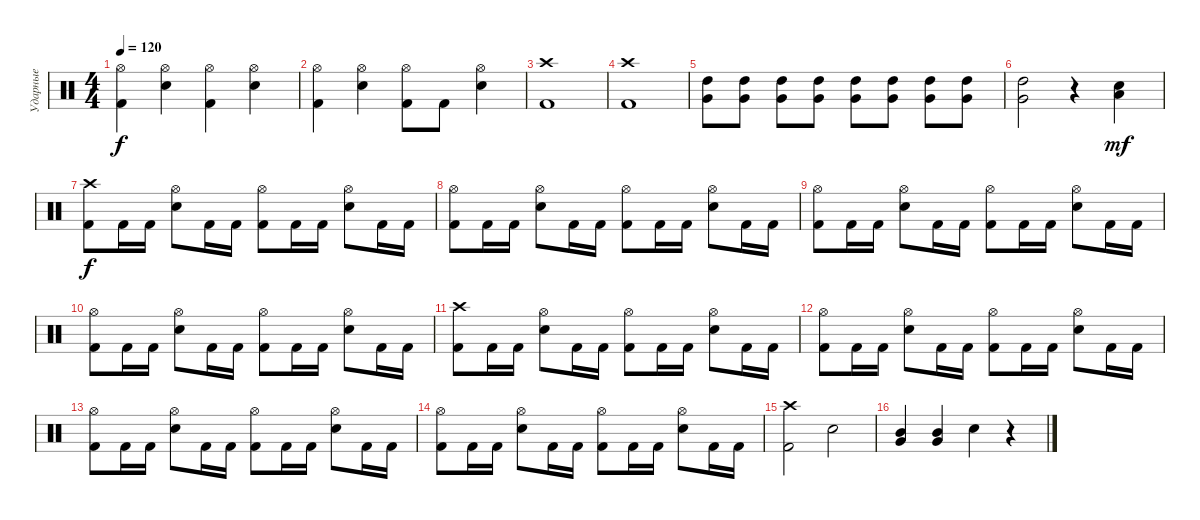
\track ("Ударные" "Ударные") {instrument percussion}
\staff {score}
\articulation defaults
\ts (4 4)
\tempo 120
\clef neutral
\ks c
("Hi-Hat (open)" "Kick (hit) 2").4{dy f} ("Hi-Hat (open)" "Snare (hit) 2").4 ("Hi-Hat (open)" "Kick (hit) 2").4 ("Hi-Hat (open)" "Snare (hit) 2").4 |
("Hi-Hat (open)" "Kick (hit) 2").4 ("Hi-Hat (open)" "Snare (hit) 2").4 ("Hi-Hat (open)" "Kick (hit) 2").8 "Kick (hit) 2".8 ("Hi-Hat (open)" "Snare (hit) 2").4 |
("Crash high (hit)" "Kick (hit) 2").1 |
("Crash high (hit)" "Kick (hit) 2").1 |
("High Tom (hit)" "Very Low Tom (hit)").8 ("High Tom (hit)" "Very Low Tom (hit)").8 ("High Tom (hit)" "Very Low Tom (hit)").8 ("High Tom (hit)" "Very Low Tom (hit)").8 ("High Tom (hit)" "Very Low Tom (hit)").8 ("High Tom (hit)" "Very Low Tom (hit)").8 ("High Tom (hit)" "Very Low Tom (hit)").8 ("High Tom (hit)" "Very Low Tom (hit)").8 |
("High Tom (hit)" "Very Low Tom (hit)").2 r.4 ("Electric Snare (hit)" "Low Tom (hit)").4{dy mf} |
("Kick (hit) 2" "Crash high (hit)").8{dy f} "Kick (hit) 2".16 "Kick (hit) 2".16 ("Snare (hit) 2" "Hi-Hat (open)").8 "Kick (hit) 2".16 "Kick (hit) 2".16 ("Kick (hit) 2" "Hi-Hat (open)").8 "Kick (hit) 2".16 "Kick (hit) 2".16 ("Snare (hit) 2" "Hi-Hat (open)").8 "Kick (hit) 2".16 "Kick (hit) 2".16 |
("Kick (hit) 2" "Hi-Hat (open)").8 "Kick (hit) 2".16 "Kick (hit) 2".16 ("Snare (hit) 2" "Hi-Hat (open)").8 "Kick (hit) 2".16 "Kick (hit) 2".16 ("Kick (hit) 2" "Hi-Hat (open)").8 "Kick (hit) 2".16 "Kick (hit) 2".16 ("Snare (hit) 2" "Hi-Hat (open)").8 "Kick (hit) 2".16 "Kick (hit) 2".16 |
("Kick (hit) 2" "Hi-Hat (open)").8 "Kick (hit) 2".16 "Kick (hit) 2".16 ("Snare (hit) 2" "Hi-Hat (open)").8 "Kick (hit) 2".16 "Kick (hit) 2".16 ("Kick (hit) 2" "Hi-Hat (open)").8 "Kick (hit) 2".16 "Kick (hit) 2".16 ("Snare (hit) 2" "Hi-Hat (open)").8 "Kick (hit) 2".16 "Kick (hit) 2".16 |
("Kick (hit) 2" "Hi-Hat (open)").8 "Kick (hit) 2".16 "Kick (hit) 2".16 ("Snare (hit) 2" "Hi-Hat (open)").8 "Kick (hit) 2".16 "Kick (hit) 2".16 ("Kick (hit) 2" "Hi-Hat (open)").8 "Kick (hit) 2".16 "Kick (hit) 2".16 ("Snare (hit) 2" "Hi-Hat (open)").8 "Kick (hit) 2".16 "Kick (hit) 2".16 |
("Kick (hit) 2" "Crash high (hit)").8 "Kick (hit) 2".16 "Kick (hit) 2".16 ("Snare (hit) 2" "Hi-Hat (open)").8 "Kick (hit) 2".16 "Kick (hit) 2".16 ("Kick (hit) 2" "Hi-Hat (open)").8 "Kick (hit) 2".16 "Kick (hit) 2".16 ("Snare (hit) 2" "Hi-Hat (open)").8 "Kick (hit) 2".16 "Kick (hit) 2".16 |
("Kick (hit) 2" "Hi-Hat (open)").8 "Kick (hit) 2".16 "Kick (hit) 2".16 ("Snare (hit) 2" "Hi-Hat (open)").8 "Kick (hit) 2".16 "Kick (hit) 2".16 ("Kick (hit) 2" "Hi-Hat (open)").8 "Kick (hit) 2".16 "Kick (hit) 2".16 ("Snare (hit) 2" "Hi-Hat (open)").8 "Kick (hit) 2".16 "Kick (hit) 2".16 |
("Kick (hit) 2" "Hi-Hat (open)").8 "Kick (hit) 2".16 "Kick (hit) 2".16 ("Snare (hit) 2" "Hi-Hat (open)").8 "Kick (hit) 2".16 "Kick (hit) 2".16 ("Kick (hit) 2" "Hi-Hat (open)").8 "Kick (hit) 2".16 "Kick (hit) 2".16 ("Snare (hit) 2" "Hi-Hat (open)").8 "Kick (hit) 2".16 "Kick (hit) 2".16 |
("Kick (hit) 2" "Hi-Hat (open)").8 "Kick (hit) 2".16 "Kick (hit) 2".16 ("Snare (hit) 2" "Hi-Hat (open)").8 "Kick (hit) 2".16 "Kick (hit) 2".16 ("Kick (hit) 2" "Hi-Hat (open)").8 "Kick (hit) 2".16 "Kick (hit) 2".16 ("Snare (hit) 2" "Hi-Hat (open)").8 "Kick (hit) 2".16 "Kick (hit) 2".16 |
("Crash high (hit)" "Kick (hit) 2").2 "Electric Snare (hit)".2 |
("Very Low Tom (hit)" "Mid Tom (hit)").4 ("Very Low Tom (hit)" "Mid Tom (hit)").4 "Electric Snare (hit)".4 r.4
